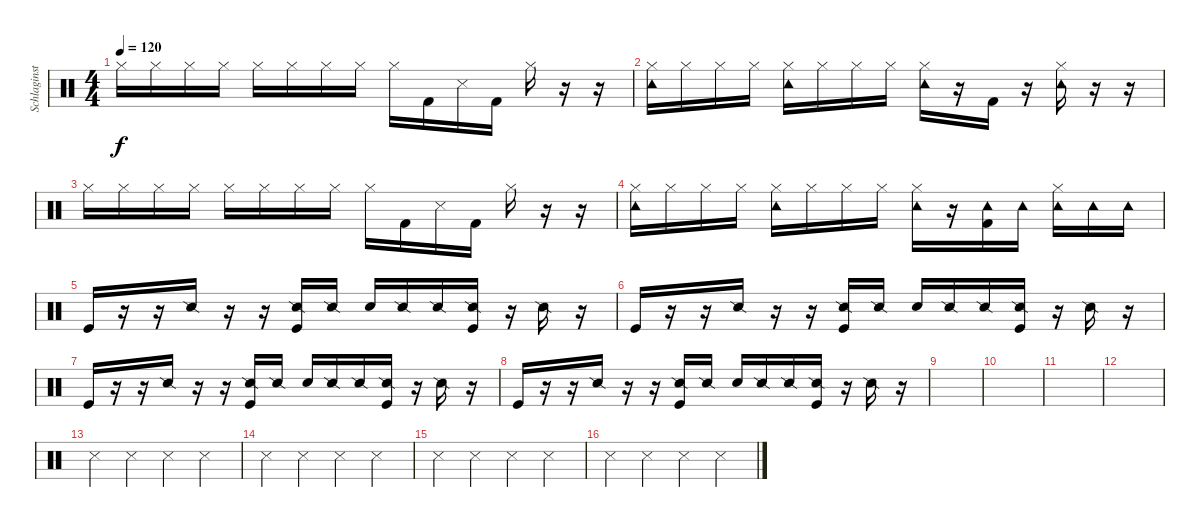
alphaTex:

\track ("Schlaginstrumente - Auswahl" "Schlaginst") {instrument percussion}
\staff {score}
\articulation defaults
\ts (4 4)
\tempo 120
\clef neutral
\ks c "Hi-Hat (closed)".16{dy f} "Hi-Hat (closed)".16 "Hi-Hat (closed)".16 "Hi-Hat (closed)".16 "Hi-Hat (closed)".16 "Hi-Hat (closed)".16 "Hi-Hat (closed)".16 "Hi-Hat (closed)".16 "Hi-Hat (closed)".16 "Kick (hit) 2".16 "Snare (side stick) 3".16 "Kick (hit) 2".16 "Hi-Hat (closed)".16
r.16 r.16 |
("Tambourine (hit)" "Hi-Hat (closed)").16 "Hi-Hat (closed)".16 "Hi-Hat (closed)".16 "Hi-Hat (closed)".16 ("Tambourine (hit)" "Hi-Hat (closed)").16 "Hi-Hat (closed)".16 "Hi-Hat (closed)".16 "Hi-Hat (closed)".16 ("Tambourine (hit)" "Hi-Hat (closed)").16 r.16 "Kick (hit) 2".16 r.16 ("Tambourine (hit)" "Hi-Hat (closed)").16 r.16 r.16 |
"Hi-Hat (closed)".16 "Hi-Hat (closed)".16 "Hi-Hat (closed)".16 "Hi-Hat (closed)".16 "Hi-Hat (closed)".16 "Hi-Hat (closed)".16 "Hi-Hat (closed)".16 "Hi-Hat (closed)".16 "Hi-Hat (closed)".16 "Kick (hit) 2".16 "Snare (side stick) 3".16 "Kick (hit) 2".16 "Hi-Hat (closed)".16 r.16 r.16 |
("Tambourine (hit)" "Hi-Hat (closed)").16 "Hi-Hat (closed)".16 "Hi-Hat (closed)".16 "Hi-Hat (closed)".16 ("Tambourine (hit)" "Hi-Hat (closed)").16 "Hi-Hat (closed)".16 "Hi-Hat (closed)".16 "Hi-Hat (closed)".16 ("Tambourine (hit)" "Hi-Hat (closed)").16 r.16 ("Tambourine (hit)" "Kick (hit) 2").16 "Tambourine (hit)".16 ("Tambourine (hit)" "Hi-Hat (closed)").16 "Tambourine (hit)".16 "Tambourine (hit)".16 |
"Kick (hit)".16 r.16 r.16 "Snare (side stick) 2".16 r.16 r.16 ("Snare (side stick) 2" "Kick (hit)").16 "Snare (side stick) 2".16 "Snare (hit) 2".16 "Snare (side stick) 2".16 "Snare (side stick) 2".16 ("Snare (side stick) 2" "Kick (hit)").16 r.16 "Snare (side stick) 2".16 r.16 |
"Kick (hit)".16 r.16 r.16 "Snare (side stick) 2".16 r.16 r.16 ("Snare (side stick) 2" "Kick (hit)").16 "Snare (side stick) 2".16 "Snare (hit) 2".16 "Snare (side stick) 2".16 "Snare (side stick) 2".16 ("Snare (side stick) 2" "Kick (hit)").16 r.16 "Snare (side stick) 2".16 r.16 |
"Kick (hit)".16 r.16 r.16 "Snare (side stick) 2".16 r.16 r.16 ("Snare (side stick) 2" "Kick (hit)").16 "Snare (side stick) 2".16 "Snare (hit) 2".16 "Snare (side stick) 2".16 "Snare (side stick) 2".16 ("Snare (side stick) 2" "Kick (hit)").16 r.16 "Snare (side stick) 2".16 r.16 |
"Kick (hit)".16 r.16 r.16 "Snare (side stick) 2".16 r.16 r.16 ("Snare (side stick) 2" "Kick (hit)").16 "Snare (side stick) 2".16 "Snare (hit) 2".16 "Snare (side stick) 2".16 "Snare (side stick) 2".16 ("Snare (side stick) 2" "Kick (hit)").16 r.16 "Snare (side stick) 2".16 r.16 |
|
|
|
|
"Snare (side stick) 3".4 "Snare (side stick) 3".4 "Snare (side stick) 3".4 "Snare (side stick) 3".4 |
"Snare (side stick) 3".4 "Snare (side stick) 3".4 "Snare (side stick) 3".4 "Snare (side stick) 3".4 |
"Snare (side stick) 3".4 "Snare (side stick) 3".4 "Snare (side stick) 3".4 "Snare (side stick) 3".4 |
"Snare (side stick) 3".4 "Snare (side stick) 3".4 "Snare (side stick) 3".4 "Snare (side stick) 3".4
